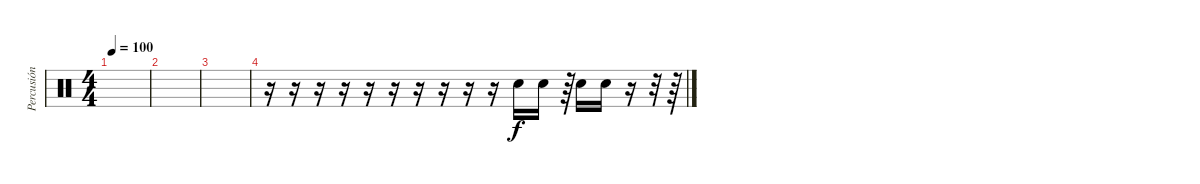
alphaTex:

\track ("Percusión" "Percusión") {instrument percussion}
\staff {score}
\articulation defaults
\ts (4 4)
\tempo 100
\clef neutral
\ks c
|
|
|
r.16 r.16 r.16 r.16 r.16 r.16 r.16 r.16 r.16 r.16 "Electric Snare (hit)".16 "Electric Snare (hit)".16 r.64 "Electric Snare (hit)".16 "Electric Snare (hit)".16 r.16 r.32 r.64
